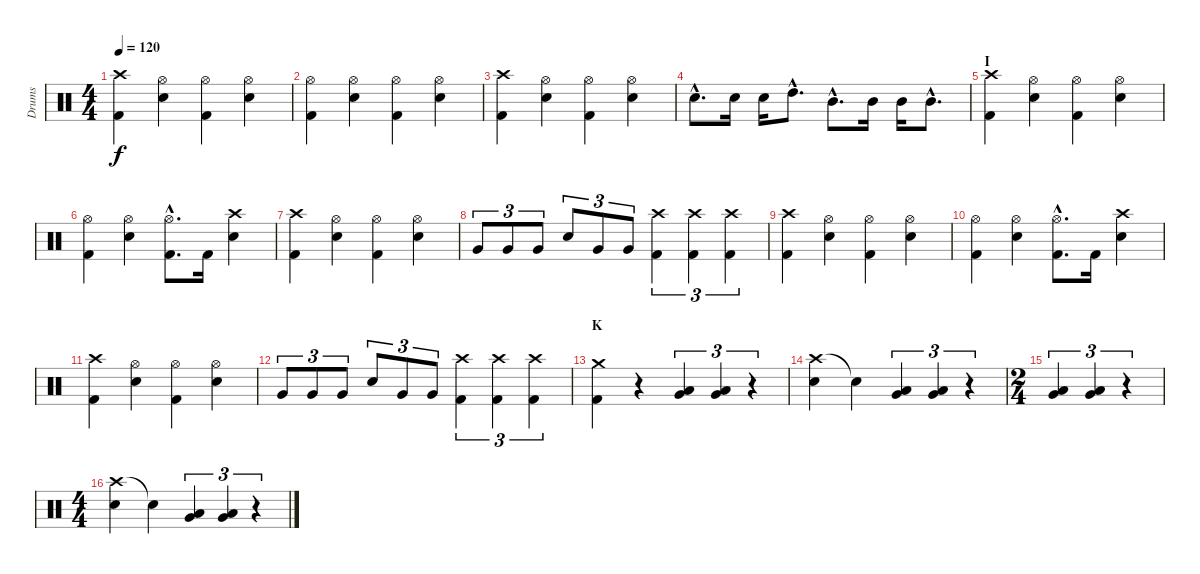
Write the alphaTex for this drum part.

\track ("Drums" "Drums") {instrument percussion}
\staff {score}
\articulation defaults
\ts (4 4)
\tempo 120
\clef neutral
\ks c
("Crash high (hit)" "Kick (hit) 2").4{dy f} ("Hi-Hat (open)" "Electric Snare (hit)").4 ("Hi-Hat (open)" "Kick (hit) 2").4 ("Hi-Hat (open)" "Electric Snare (hit)").4 |
("Hi-Hat (open)" "Kick (hit) 2").4 ("Hi-Hat (open)" "Electric Snare (hit)").4 ("Hi-Hat (open)" "Kick (hit) 2").4 ("Hi-Hat (open)" "Electric Snare (hit)").4 |
("Crash high (hit)" "Kick (hit) 2").4 ("Hi-Hat (open)" "Electric Snare (hit)").4 ("Hi-Hat (open)" "Kick (hit) 2").4 ("Hi-Hat (open)" "Electric Snare (hit)").4 |
"Electric Snare (hit)"{hac}.8{d} "Electric Snare (hit)".16 "Electric Snare (hit)".16 "High Tom (hit)"{hac}.8{d} "Mid Tom (hit)"{hac}.8{d} "Mid Tom (hit)".16 "Mid Tom (hit)".16 "Mid Tom (hit)"{hac}.8{d} |
\section ("" "I")
("Crash high (hit)" "Kick (hit) 2").4 ("Hi-Hat (open)" "Electric Snare (hit)").4 ("Hi-Hat (open)" "Kick (hit) 2").4 ("Hi-Hat (open)" "Electric Snare (hit)").4 |
("Hi-Hat (open)" "Kick (hit) 2").4 ("Hi-Hat (open)" "Electric Snare (hit)").4 ("Hi-Hat (open)"{hac} "Kick (hit) 2"{hac}).8{d} "Kick (hit) 2".16 ("Crash high (hit)" "Electric Snare (hit)").4 |
("Crash high (hit)" "Kick (hit) 2").4 ("Hi-Hat (open)" "Electric Snare (hit)").4 ("Hi-Hat (open)" "Kick (hit) 2").4 ("Hi-Hat (open)" "Electric Snare (hit)").4 |
"Very Low Tom (hit)".8{tu (3 2)} "Very Low Tom (hit)".8{tu (3 2)} "Very Low Tom (hit)".8{tu (3 2)} "Electric Snare (hit)".8{tu (3 2)} "Very Low Tom (hit)".8{tu (3 2)} "Very Low Tom (hit)".8{tu (3 2)} ("Crash high (hit)" "Kick (hit) 2").4{tu (3 2)} ("Crash high (hit)" "Kick (hit) 2").4{tu (3 2)} ("Crash high (hit)" "Kick (hit) 2").4{tu (3 2)} |
("Crash high (hit)" "Kick (hit) 2").4 ("Hi-Hat (open)" "Electric Snare (hit)").4 ("Hi-Hat (open)" "Kick (hit) 2").4 ("Hi-Hat (open)" "Electric Snare (hit)").4 |
("Hi-Hat (open)" "Kick (hit) 2").4 ("Hi-Hat (open)" "Electric Snare (hit)").4 ("Hi-Hat (open)"{hac} "Kick (hit) 2"{hac}).8{d} "Kick (hit) 2".16 ("Crash high (hit)" "Electric Snare (hit)").4 |
("Crash high (hit)" "Kick (hit) 2").4 ("Hi-Hat (open)" "Electric Snare (hit)").4 ("Hi-Hat (open)" "Kick (hit) 2").4 ("Hi-Hat (open)" "Electric Snare (hit)").4 |
"Very Low Tom (hit)".8{tu (3 2)} "Very Low Tom (hit)".8{tu (3 2)} "Very Low Tom (hit)".8{tu (3 2)} "Electric Snare (hit)".8{tu (3 2)} "Very Low Tom (hit)".8{tu (3 2)} "Very Low Tom (hit)".8{tu (3 2)} ("Crash high (hit)" "Kick (hit) 2").4{tu (3 2)} ("Crash high (hit)" "Kick (hit) 2").4{tu (3 2)} ("Crash high (hit)" "Kick (hit) 2").4{tu (3 2)} |
\section ("" "K")
("Crash medium (hit)" "Kick (hit) 2").4 r.4 ("Very Low Tom (hit)" "Low Floor Tom (hit)").4{tu (3 2)} ("Very Low Tom (hit)" "Low Floor Tom (hit)").4{tu (3 2)} r.4{tu (3 2)} |
("Crash high (hit)" "Electric Snare (hit)").4 "Snare (hit)"{t}.4 ("Very Low Tom (hit)" "Low Floor Tom (hit)").4{tu (3 2)} ("Very Low Tom (hit)" "Low Floor Tom (hit)").4{tu (3 2)} r.4{tu (3 2)} |
\ts (2 4)
("Very Low Tom (hit)" "Low Floor Tom (hit)").4{tu (3 2)} ("Very Low Tom (hit)" "Low Floor Tom (hit)").4{tu (3 2)} r.4{tu (3 2)} |
\ts (4 4)
("Crash high (hit)" "Electric Snare (hit)").4 "Snare (hit)"{t}.4 ("Very Low Tom (hit)" "Low Floor Tom (hit)").4{tu (3 2)} ("Very Low Tom (hit)" "Low Floor Tom (hit)").4{tu (3 2)} r.4{tu (3 2)}
